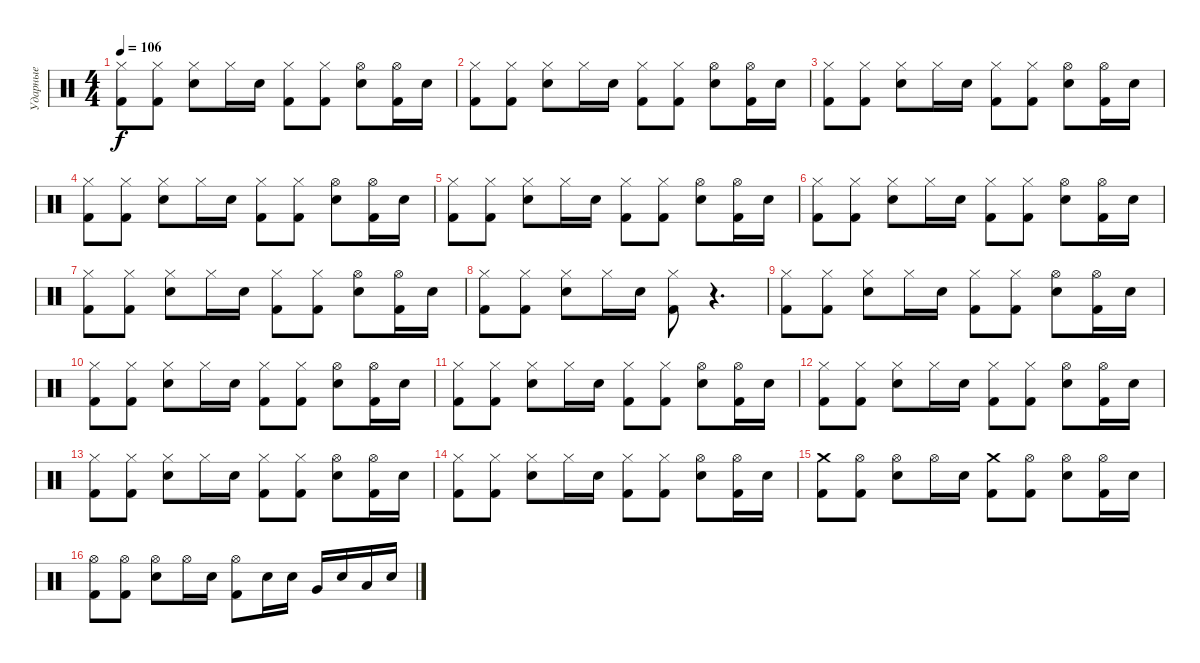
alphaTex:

\track ("Ударные" "Ударные") {instrument percussion}
\staff {score}
\articulation defaults
\ts (4 4)
\tempo 106
\clef neutral
\ks c
("Hi-Hat (closed)" "Kick (hit) 2").8{dy f} ("Hi-Hat (closed)" "Kick (hit) 2").8 ("Hi-Hat (closed)" "Electric Snare (hit)").8 "Hi-Hat (closed)".16 "Electric Snare (hit)".16 ("Hi-Hat (closed)" "Kick (hit) 2").8 ("Hi-Hat (closed)" "Kick (hit) 2").8 ("Hi-Hat (open)" "Electric Snare (hit)").8 ("Hi-Hat (open)" "Kick (hit) 2").16 "Electric Snare (hit)".16 |
("Hi-Hat (closed)" "Kick (hit) 2").8 ("Hi-Hat (closed)" "Kick (hit) 2").8 ("Hi-Hat (closed)" "Electric Snare (hit)").8 "Hi-Hat (closed)".16 "Electric Snare (hit)".16 ("Hi-Hat (closed)" "Kick (hit) 2").8 ("Hi-Hat (closed)" "Kick (hit) 2").8 ("Hi-Hat (open)" "Electric Snare (hit)").8 ("Hi-Hat (open)" "Kick (hit) 2").16 "Electric Snare (hit)".16 |
("Hi-Hat (closed)" "Kick (hit) 2").8 ("Hi-Hat (closed)" "Kick (hit) 2").8 ("Hi-Hat (closed)" "Electric Snare (hit)").8 "Hi-Hat (closed)".16 "Electric Snare (hit)".16 ("Hi-Hat (closed)" "Kick (hit) 2").8 ("Hi-Hat (closed)" "Kick (hit) 2").8 ("Hi-Hat (open)" "Electric Snare (hit)").8 ("Hi-Hat (open)" "Kick (hit) 2").16 "Electric Snare (hit)".16 |
("Hi-Hat (closed)" "Kick (hit) 2").8 ("Hi-Hat (closed)" "Kick (hit) 2").8 ("Hi-Hat (closed)" "Electric Snare (hit)").8 "Hi-Hat (closed)".16 "Electric Snare (hit)".16 ("Hi-Hat (closed)" "Kick (hit) 2").8 ("Hi-Hat (closed)" "Kick (hit) 2").8 ("Hi-Hat (open)" "Electric Snare (hit)").8 ("Hi-Hat (open)" "Kick (hit) 2").16 "Electric Snare (hit)".16 |
("Hi-Hat (closed)" "Kick (hit) 2").8 ("Hi-Hat (closed)" "Kick (hit) 2").8 ("Hi-Hat (closed)" "Electric Snare (hit)").8 "Hi-Hat (closed)".16 "Electric Snare (hit)".16 ("Hi-Hat (closed)" "Kick (hit) 2").8 ("Hi-Hat (closed)" "Kick (hit) 2").8 ("Hi-Hat (open)" "Electric Snare (hit)").8 ("Hi-Hat (open)" "Kick (hit) 2").16 "Electric Snare (hit)".16 |
("Hi-Hat (closed)" "Kick (hit) 2").8 ("Hi-Hat (closed)" "Kick (hit) 2").8 ("Hi-Hat (closed)" "Electric Snare (hit)").8 "Hi-Hat (closed)".16 "Electric Snare (hit)".16 ("Hi-Hat (closed)" "Kick (hit) 2").8 ("Hi-Hat (closed)" "Kick (hit) 2").8 ("Hi-Hat (open)" "Electric Snare (hit)").8 ("Hi-Hat (open)" "Kick (hit) 2").16 "Electric Snare (hit)".16 |
("Hi-Hat (closed)" "Kick (hit) 2").8 ("Hi-Hat (closed)" "Kick (hit) 2").8 ("Hi-Hat (closed)" "Electric Snare (hit)").8 "Hi-Hat (closed)".16 "Electric Snare (hit)".16 ("Hi-Hat (closed)" "Kick (hit) 2").8 ("Hi-Hat (closed)" "Kick (hit) 2").8 ("Hi-Hat (open)" "Electric Snare (hit)").8 ("Hi-Hat (open)" "Kick (hit) 2").16 "Electric Snare (hit)".16 |
("Hi-Hat (closed)" "Kick (hit) 2").8 ("Hi-Hat (closed)" "Kick (hit) 2").8 ("Hi-Hat (closed)" "Electric Snare (hit)").8 "Hi-Hat (closed)".16 "Electric Snare (hit)".16 ("Hi-Hat (closed)" "Kick (hit) 2").8 r.4{d} |
("Hi-Hat (closed)" "Kick (hit) 2").8 ("Hi-Hat (closed)" "Kick (hit) 2").8 ("Hi-Hat (closed)" "Electric Snare (hit)").8 "Hi-Hat (closed)".16 "Electric Snare (hit)".16 ("Hi-Hat (closed)" "Kick (hit) 2").8 ("Hi-Hat (closed)" "Kick (hit) 2").8 ("Hi-Hat (open)" "Electric Snare (hit)").8 ("Hi-Hat (open)" "Kick (hit) 2").16 "Electric Snare (hit)".16 |
("Hi-Hat (closed)" "Kick (hit) 2").8 ("Hi-Hat (closed)" "Kick (hit) 2").8 ("Hi-Hat (closed)" "Electric Snare (hit)").8 "Hi-Hat (closed)".16 "Electric Snare (hit)".16 ("Hi-Hat (closed)" "Kick (hit) 2").8 ("Hi-Hat (closed)" "Kick (hit) 2").8 ("Hi-Hat (open)" "Electric Snare (hit)").8 ("Hi-Hat (open)" "Kick (hit) 2").16 "Electric Snare (hit)".16 |
("Hi-Hat (closed)" "Kick (hit) 2").8 ("Hi-Hat (closed)" "Kick (hit) 2").8 ("Hi-Hat (closed)" "Electric Snare (hit)").8 "Hi-Hat (closed)".16 "Electric Snare (hit)".16 ("Hi-Hat (closed)" "Kick (hit) 2").8 ("Hi-Hat (closed)" "Kick (hit) 2").8 ("Hi-Hat (open)" "Electric Snare (hit)").8 ("Hi-Hat (open)" "Kick (hit) 2").16 "Electric Snare (hit)".16 |
("Hi-Hat (closed)" "Kick (hit) 2").8 ("Hi-Hat (closed)" "Kick (hit) 2").8 ("Hi-Hat (closed)" "Electric Snare (hit)").8 "Hi-Hat (closed)".16 "Electric Snare (hit)".16 ("Hi-Hat (closed)" "Kick (hit) 2").8 ("Hi-Hat (closed)" "Kick (hit) 2").8 ("Hi-Hat (open)" "Electric Snare (hit)").8 ("Hi-Hat (open)" "Kick (hit) 2").16 "Electric Snare (hit)".16 |
("Hi-Hat (closed)" "Kick (hit) 2").8 ("Hi-Hat (closed)" "Kick (hit) 2").8 ("Hi-Hat (closed)" "Electric Snare (hit)").8 "Hi-Hat (closed)".16 "Electric Snare (hit)".16 ("Hi-Hat (closed)" "Kick (hit) 2").8 ("Hi-Hat (closed)" "Kick (hit) 2").8 ("Hi-Hat (open)" "Electric Snare (hit)").8 ("Hi-Hat (open)" "Kick (hit) 2").16 "Electric Snare (hit)".16 |
("Hi-Hat (closed)" "Kick (hit) 2").8 ("Hi-Hat (closed)" "Kick (hit) 2").8 ("Hi-Hat (closed)" "Electric Snare (hit)").8 "Hi-Hat (closed)".16 "Electric Snare (hit)".16 ("Hi-Hat (closed)" "Kick (hit) 2").8 ("Hi-Hat (closed)" "Kick (hit) 2").8 ("Hi-Hat (open)" "Electric Snare (hit)").8 ("Hi-Hat (open)" "Kick (hit) 2").16 "Electric Snare (hit)".16 |
("Crash medium (hit)" "Kick (hit) 2").8 ("Hi-Hat (open)" "Kick (hit) 2").8 ("Hi-Hat (open)" "Electric Snare (hit)").8 "Hi-Hat (open)".16 "Electric Snare (hit)".16 ("Crash medium (hit)" "Kick (hit) 2").8 ("Hi-Hat (open)" "Kick (hit) 2").8 ("Hi-Hat (open)" "Electric Snare (hit)").8 ("Hi-Hat (open)" "Kick (hit) 2").16 "Electric Snare (hit)".16 |
("Hi-Hat (open)" "Kick (hit) 2").8 ("Hi-Hat (open)" "Kick (hit) 2").8 ("Hi-Hat (open)" "Electric Snare (hit)").8 "Hi-Hat (open)".16 "Electric Snare (hit)".16 ("Hi-Hat (open)" "Kick (hit) 2").8 "Electric Snare (hit)".16 "Electric Snare (hit)".16 "Very Low Tom (hit)".16 "Electric Snare (hit)".16 "Low Tom (hit)".16 "Electric Snare (hit)".16
